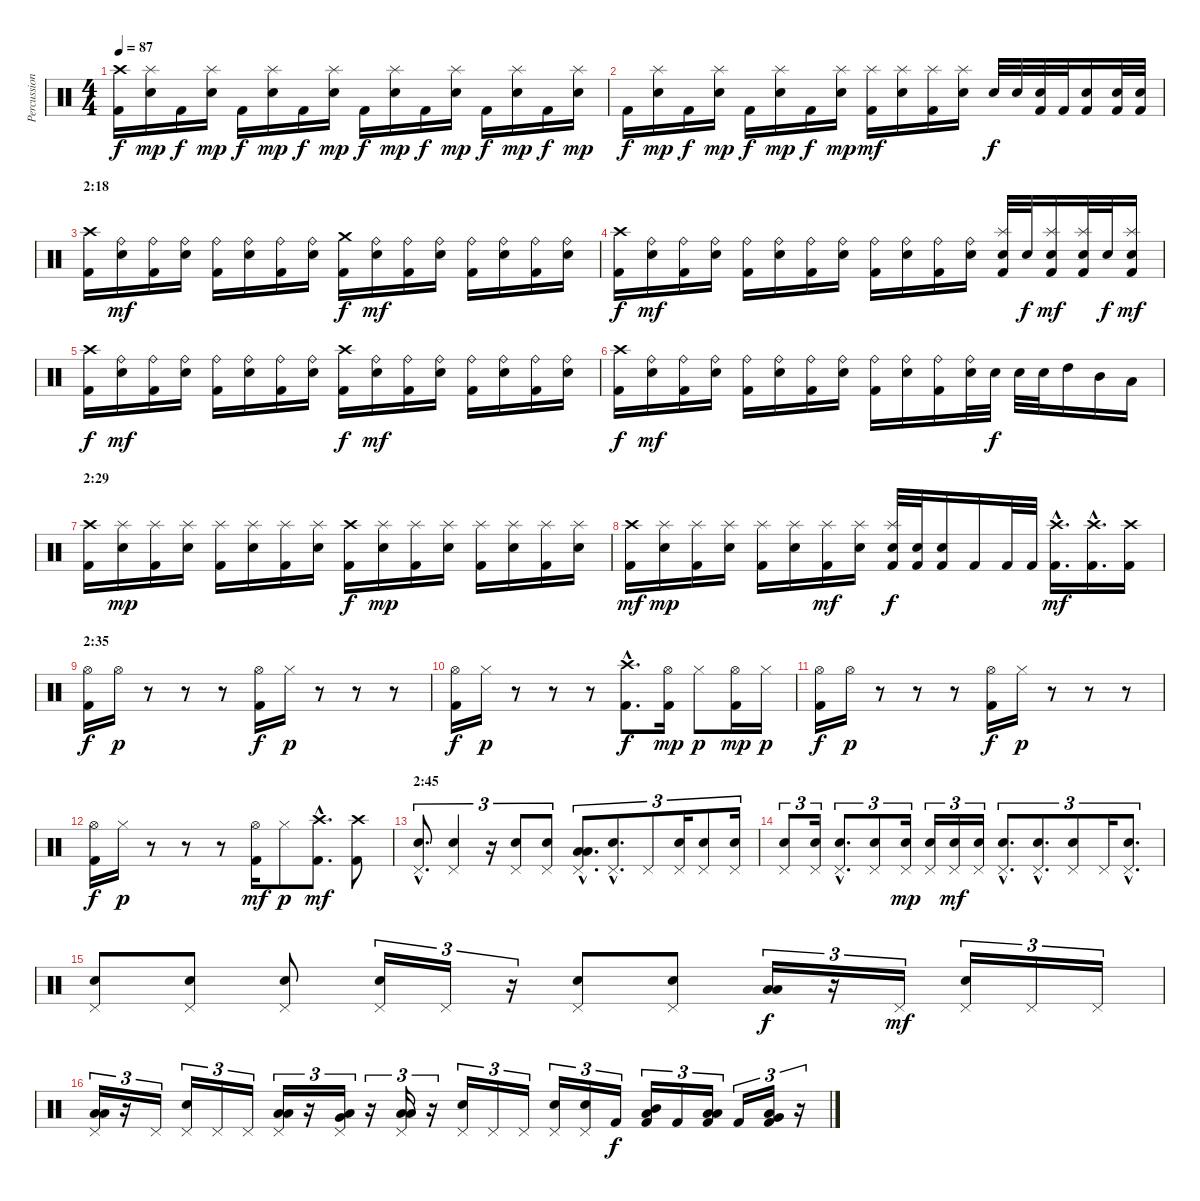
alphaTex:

\track ("Percussion" "Percussion") {instrument percussion}
\staff {score}
\articulation defaults
\ts (4 4)
\tempo 87
\clef neutral
\ks c
("Crash high (hit)" "Kick (hit) 2").16{dy f} ("Splash (hit)" "Snare (hit) 2").16{dy mp} "Kick (hit) 2".16{dy f} ("Splash (hit)" "Snare (hit) 2").16{dy mp} "Kick (hit) 2".16{dy f} ("Splash (hit)" "Snare (hit) 2").16{dy mp} "Kick (hit) 2".16{dy f} ("Splash (hit)" "Snare (hit) 2").16{dy mp} "Kick (hit) 2".16{dy f} ("Splash (hit)" "Snare (hit) 2").16{dy mp} "Kick (hit) 2".16{dy f} ("Splash (hit)" "Snare (hit) 2").16{dy mp} "Kick (hit) 2".16{dy f} ("Splash (hit)" "Snare (hit) 2").16{dy mp} "Kick (hit) 2".16{dy f} ("Splash (hit)" "Snare (hit) 2").16{dy mp} |
"Kick (hit) 2".16{dy f} ("Splash (hit)" "Snare (hit) 2").16{dy mp} "Kick (hit) 2".16{dy f} ("Splash (hit)" "Snare (hit) 2").16{dy mp} "Kick (hit) 2".16{dy f} ("Splash (hit)" "Snare (hit) 2").16{dy mp} "Kick (hit) 2".16{dy f} ("Splash (hit)" "Snare (hit) 2").16{dy mp} ("Splash (hit)" "Kick (hit) 2").16{dy mf} ("Splash (hit)" "Snare (hit) 2").16 ("Splash (hit)" "Kick (hit) 2").16 ("Splash (hit)" "Snare (hit) 2").16 "Snare (hit) 2".32{dy f} "Snare (hit) 2".32 ("Snare (hit) 2" "Kick (hit) 2").32 "Kick (hit) 2".32 ("Snare (hit) 2" "Kick (hit) 2").16 ("Snare (hit) 2" "Kick (hit) 2").32 ("Snare (hit) 2" "Kick (hit) 2").32 |
\section ("" "2:18")
("Crash high (hit)" "Kick (hit) 2").16 ("Ride (bell)" "Snare (hit) 2").16{dy mf} ("Ride (bell)" "Kick (hit) 2").16 ("Ride (bell)" "Snare (hit) 2").16 ("Ride (bell)" "Kick (hit) 2").16 ("Ride (bell)" "Snare (hit) 2").16 ("Ride (bell)" "Kick (hit) 2").16 ("Ride (bell)" "Snare (hit) 2").16 ("Crash medium (hit)" "Kick (hit) 2").16{dy f} ("Ride (bell)" "Snare (hit) 2").16{dy mf} ("Ride (bell)" "Kick (hit) 2").16 ("Ride (bell)" "Snare (hit) 2").16 ("Ride (bell)" "Kick (hit) 2").16 ("Ride (bell)" "Snare (hit) 2").16 ("Ride (bell)" "Kick (hit) 2").16 ("Ride (bell)" "Snare (hit) 2").16 |
("Crash high (hit)" "Kick (hit) 2").16{dy f} ("Ride (bell)" "Snare (hit) 2").16{dy mf} ("Ride (bell)" "Kick (hit) 2").16 ("Ride (bell)" "Snare (hit) 2").16 ("Ride (bell)" "Kick (hit) 2").16 ("Ride (bell)" "Snare (hit) 2").16 ("Ride (bell)" "Kick (hit) 2").16 ("Ride (bell)" "Snare (hit) 2").16 ("Ride (bell)" "Kick (hit) 2").16 ("Ride (bell)" "Snare (hit) 2").16 ("Ride (bell)" "Kick (hit) 2").16 ("Ride (bell)" "Snare (hit) 2").16 ("Splash (hit)" "Snare (hit) 2" "Kick (hit) 2").32 "Snare (hit) 2".32{dy f} ("Splash (hit)" "Snare (hit) 2" "Kick (hit) 2").16{dy mf} ("Splash (hit)" "Snare (hit) 2" "Kick (hit) 2").32 "Snare (hit) 2".32{dy f} ("Splash (hit)" "Snare (hit) 2" "Kick (hit) 2").16{dy mf} |
("Crash high (hit)" "Kick (hit) 2").16{dy f} ("Ride (bell)" "Snare (hit) 2").16{dy mf} ("Ride (bell)" "Kick (hit) 2").16 ("Ride (bell)" "Snare (hit) 2").16 ("Ride (bell)" "Kick (hit) 2").16 ("Ride (bell)" "Snare (hit) 2").16 ("Ride (bell)" "Kick (hit) 2").16 ("Ride (bell)" "Snare (hit) 2").16 ("Crash high (hit)" "Kick (hit) 2").16{dy f} ("Ride (bell)" "Snare (hit) 2").16{dy mf} ("Ride (bell)" "Kick (hit) 2").16 ("Ride (bell)" "Snare (hit) 2").16 ("Ride (bell)" "Kick (hit) 2").16 ("Ride (bell)" "Snare (hit) 2").16 ("Ride (bell)" "Kick (hit) 2").16 ("Ride (bell)" "Snare (hit) 2").16 |
("Crash high (hit)" "Kick (hit) 2").16{dy f} ("Ride (bell)" "Snare (hit) 2").16{dy mf} ("Ride (bell)" "Kick (hit) 2").16 ("Ride (bell)" "Snare (hit) 2").16 ("Ride (bell)" "Kick (hit) 2").16 ("Ride (bell)" "Snare (hit) 2").16 ("Ride (bell)" "Kick (hit) 2").16 ("Ride (bell)" "Snare (hit) 2").16 ("Ride (bell)" "Kick (hit) 2").16 ("Ride (bell)" "Snare (hit) 2").16 ("Ride (bell)" "Kick (hit) 2").16 ("Ride (bell)" "Snare (hit) 2").32 "Snare (hit) 2".32{dy f} "Snare (hit) 2".32 "Snare (hit) 2".32 "High Tom (hit)".16 "Mid Tom (hit)".16 "Low Tom (hit)".16 |
\section ("" "2:29")
("Crash high (hit)" "Kick (hit) 2").16 ("Splash (hit)" "Snare (hit) 2").16{dy mp} ("Splash (hit)" "Kick (hit) 2").16 ("Splash (hit)" "Snare (hit) 2").16 ("Splash (hit)" "Kick (hit) 2").16 ("Splash (hit)" "Snare (hit) 2").16 ("Splash (hit)" "Kick (hit) 2").16 ("Splash (hit)" "Snare (hit) 2").16 ("Crash high (hit)" "Kick (hit) 2").16{dy f} ("Splash (hit)" "Snare (hit) 2").16{dy mp} ("Splash (hit)" "Kick (hit) 2").16 ("Splash (hit)" "Snare (hit) 2").16 ("Splash (hit)" "Kick (hit) 2").16 ("Splash (hit)" "Snare (hit) 2").16 ("Splash (hit)" "Kick (hit) 2").16 ("Splash (hit)" "Snare (hit) 2").16 |
("Crash high (hit)" "Kick (hit) 2").16{dy mf} ("Splash (hit)" "Snare (hit) 2").16{dy mp} ("Splash (hit)" "Kick (hit) 2").16 ("Splash (hit)" "Snare (hit) 2").16 ("Splash (hit)" "Kick (hit) 2").16 ("Splash (hit)" "Snare (hit) 2").16 ("Splash (hit)" "Kick (hit) 2").16{dy mf} ("Splash (hit)" "Snare (hit) 2").16 ("Splash (hit)" "Snare (hit) 2" "Kick (hit) 2").32{dy f} ("Snare (hit) 2" "Kick (hit) 2").32 ("Snare (hit) 2" "Kick (hit) 2").16 "Kick (hit) 2".16 "Kick (hit) 2".32 "Kick (hit) 2".32 ("Crash high (hit)"{hac} "Kick (hit) 2"{hac}).16{d dy mf} ("Crash high (hit)"{hac} "Kick (hit) 2"{hac}).16{d} ("Crash high (hit)" "Kick (hit) 2").16 |
\section ("" "2:35")
("Hi-Hat (open)" "Kick (hit) 2").16{dy f} "Hi-Hat (open)".16{dy p} r.8 r.8 r.8 ("Hi-Hat (open)" "Kick (hit) 2").16{dy f} "Hi-Hat (closed)".16{dy p} r.8 r.8 r.8 |
("Hi-Hat (open)" "Kick (hit) 2").16{dy f} "Hi-Hat (closed)".16{dy p} r.8 r.8 r.8 ("Crash high (hit)"{hac} "Kick (hit) 2"{hac}).8{d dy f} ("Hi-Hat (open)" "Kick (hit) 2").16{dy mp} "Hi-Hat (closed)".8{dy p} ("Hi-Hat (open)" "Kick (hit) 2").16{dy mp} "Hi-Hat (closed)".16{dy p} |
("Hi-Hat (open)" "Kick (hit) 2").16{dy f} "Hi-Hat (open)".16{dy p} r.8 r.8 r.8 ("Hi-Hat (open)" "Kick (hit) 2").16{dy f} "Hi-Hat (closed)".16{dy p} r.8 r.8 r.8 |
("Hi-Hat (open)" "Kick (hit) 2").16{dy f} "Hi-Hat (closed)".16{dy p} r.8 r.8 r.8 ("Hi-Hat (open)" "Kick (hit) 2").16{dy mf} "Hi-Hat (closed)".8{dy p} ("Crash high (hit)"{hac} "Kick (hit) 2"{hac}).8{d dy mf} ("Crash high (hit)" "Kick (hit) 2").8 |
\section ("" "2:45")
("Pedal Hi-Hat (hit)"{hac} "Snare (hit) 2"{hac}).8{d tu (3 2)} ("Pedal Hi-Hat (hit)" "Snare (hit) 2").4{tu (3 2)} r.16{tu (3 2)} ("Pedal Hi-Hat (hit)" "Snare (hit) 2").8{tu (3 2)} ("Pedal Hi-Hat (hit)" "Snare (hit) 2").8{tu (3 2)} ("Pedal Hi-Hat (hit)"{hac} "Low Tom (hit)"{hac} "Low Tom (hit)"{hac}).8{d tu (3 2)} ("Pedal Hi-Hat (hit)"{hac} "Snare (hit) 2"{hac}).8{d tu (3 2)} "Pedal Hi-Hat (hit)".8{tu (3 2)} ("Pedal Hi-Hat (hit)" "Snare (hit) 2").16{tu (3 2)} ("Pedal Hi-Hat (hit)" "Snare (hit) 2").8{tu (3 2)} ("Pedal Hi-Hat (hit)" "Snare (hit) 2").16{tu (3 2)} |
("Pedal Hi-Hat (hit)" "Snare (hit) 2").8{tu (3 2)} ("Pedal Hi-Hat (hit)" "Snare (hit) 2").16{tu (3 2)} ("Pedal Hi-Hat (hit)"{hac} "Snare (hit) 2"{hac}).8{d tu (3 2)} ("Pedal Hi-Hat (hit)" "Snare (hit) 2").8{tu (3 2)} ("Pedal Hi-Hat (hit)" "Snare (hit) 2").16{tu (3 2) dy mp} ("Pedal Hi-Hat (hit)" "Snare (hit) 2").16{tu (3 2)} ("Pedal Hi-Hat (hit)" "Snare (hit) 2").16{tu (3 2) dy mf} ("Pedal Hi-Hat (hit)" "Snare (hit) 2").16{tu (3 2)} ("Pedal Hi-Hat (hit)"{hac} "Snare (hit) 2"{hac}).8{d tu (3 2)} ("Pedal Hi-Hat (hit)"{hac} "Snare (hit) 2"{hac}).8{d tu (3 2)} ("Pedal Hi-Hat (hit)" "Snare (hit) 2").8{tu (3 2)} "Pedal Hi-Hat (hit)".16{tu (3 2)} ("Pedal Hi-Hat (hit)"{hac} "Snare (hit) 2"{hac}).8{d tu (3 2)} |
("Pedal Hi-Hat (hit)" "Snare (hit) 2").8 ("Pedal Hi-Hat (hit)" "Snare (hit) 2").8 ("Pedal Hi-Hat (hit)" "Snare (hit) 2").8 ("Pedal Hi-Hat (hit)" "Snare (hit) 2").16{tu (3 2)} "Pedal Hi-Hat (hit)".16{tu (3 2)} r.16{tu (3 2)} ("Pedal Hi-Hat (hit)" "Snare (hit) 2").8 ("Pedal Hi-Hat (hit)" "Snare (hit) 2").8 ("Low Tom (hit)" "Low Tom (hit)").16{tu (3 2) dy f} r.16{tu (3 2)} "Pedal Hi-Hat (hit)".16{tu (3 2) dy mf} ("Pedal Hi-Hat (hit)" "Snare (hit) 2").16{tu (3 2)} "Pedal Hi-Hat (hit)".16{tu (3 2)} "Pedal Hi-Hat (hit)".16{tu (3 2)} |
("Pedal Hi-Hat (hit)" "Low Tom (hit)" "Low Tom (hit)").16{tu (3 2)} r.16{tu (3 2)} "Pedal Hi-Hat (hit)".16{tu (3 2)} ("Pedal Hi-Hat (hit)" "Snare (hit) 2").16{tu (3 2)} "Pedal Hi-Hat (hit)".16{tu (3 2)} "Pedal Hi-Hat (hit)".16{tu (3 2)} ("Pedal Hi-Hat (hit)" "Low Tom (hit)" "Low Tom (hit)").16{tu (3 2)} r.16{tu (3 2)} ("Pedal Hi-Hat (hit)" "Low Tom (hit)" "Very Low Tom (hit)").16{tu (3 2)} r.16{tu (3 2)} ("Pedal Hi-Hat (hit)" "Low Tom (hit)" "Low Floor Tom (hit)").16{tu (3 2)} r.16{tu (3 2)} ("Pedal Hi-Hat (hit)" "Snare (hit) 2").16{tu (3 2)} "Pedal Hi-Hat (hit)".16{tu (3 2)} "Pedal Hi-Hat (hit)".16{tu (3 2)} ("Pedal Hi-Hat (hit)" "Snare (hit) 2").16{tu (3 2)} ("Pedal Hi-Hat (hit)" "Snare (hit) 2").16{tu (3 2)} "Kick (hit) 2".16{tu (3 2) dy f} ("Low Tom (hit)" "Mid Tom (hit)" "Kick (hit) 2").16{tu (3 2)} "Kick (hit) 2".16{tu (3 2)} ("Low Tom (hit)" "Low Tom (hit)" "Kick (hit) 2").16{tu (3 2)} "Kick (hit) 2".16{tu (3 2)} ("Low Tom (hit)" "Very Low Tom (hit)" "Kick (hit) 2").16{tu (3 2)} r.16{tu (3 2)}
